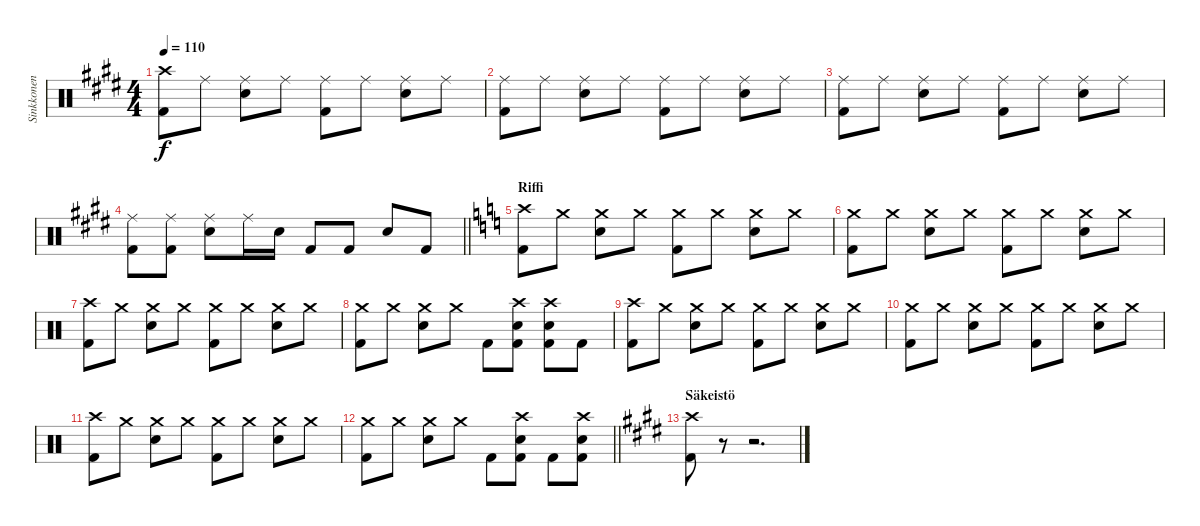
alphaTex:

\track ("Sinkkonen" "Sinkkonen") {instrument percussion}
\staff {score}
\articulation defaults
\ts (4 4)
\tempo 110
\clef neutral
\ks c#minor
("Crash high (hit)" "Kick (hit) 2").8{dy f} "Ride (middle)".8 ("Ride (middle)" "Snare (hit) 2").8 "Ride (middle)".8 ("Ride (middle)" "Kick (hit) 2").8 "Ride (middle)".8 ("Ride (middle)" "Snare (hit) 2").8 "Ride (middle)".8 |
("Ride (middle)" "Kick (hit) 2").8 "Ride (middle)".8 ("Ride (middle)" "Snare (hit) 2").8 "Ride (middle)".8 ("Ride (middle)" "Kick (hit) 2").8 "Ride (middle)".8 ("Ride (middle)" "Snare (hit) 2").8 "Ride (middle)".8 |
("Ride (middle)" "Kick (hit) 2").8 "Ride (middle)".8 ("Ride (middle)" "Snare (hit) 2").8 "Ride (middle)".8 ("Ride (middle)" "Kick (hit) 2").8 "Ride (middle)".8 ("Ride (middle)" "Snare (hit) 2").8 "Ride (middle)".8 |
\barLineRight lightlight
("Ride (middle)" "Kick (hit) 2").8 ("Ride (middle)" "Kick (hit) 2").8 ("Ride (middle)" "Snare (hit) 2").8 "Ride (middle)".16 "Snare (hit) 2".16 "Kick (hit) 2".8 "Kick (hit) 2".8 "Snare (hit) 2".8 "Kick (hit) 2".8 |
\section ("" "Riffi")
\ks c
("Crash high (hit)" "Kick (hit) 2").8 "Crash medium (hit)".8 ("Crash medium (hit)" "Snare (hit) 2").8 "Crash medium (hit)".8 ("Crash medium (hit)" "Kick (hit) 2").8 "Crash medium (hit)".8 ("Crash medium (hit)" "Snare (hit) 2").8 "Crash medium (hit)".8 |
("Crash medium (hit)" "Kick (hit) 2").8 "Crash medium (hit)".8 ("Crash medium (hit)" "Snare (hit) 2").8 "Crash medium (hit)".8 ("Crash medium (hit)" "Kick (hit) 2").8 "Crash medium (hit)".8 ("Crash medium (hit)" "Snare (hit) 2").8 "Crash medium (hit)".8 |
("Crash high (hit)" "Kick (hit) 2").8 "Crash medium (hit)".8 ("Crash medium (hit)" "Snare (hit) 2").8 "Crash medium (hit)".8 ("Crash medium (hit)" "Kick (hit) 2").8 "Crash medium (hit)".8 ("Crash medium (hit)" "Snare (hit) 2").8 "Crash medium (hit)".8 |
("Crash medium (hit)" "Kick (hit) 2").8 "Crash medium (hit)".8 ("Crash medium (hit)" "Snare (hit) 2").8 "Crash medium (hit)".8 "Kick (hit) 2".8 ("Crash high (hit)" "Snare (hit) 2" "Kick (hit) 2").8 ("Crash high (hit)" "Snare (hit) 2" "Kick (hit) 2").8 "Kick (hit) 2".8 |
("Crash high (hit)" "Kick (hit) 2").8 "Crash medium (hit)".8 ("Crash medium (hit)" "Snare (hit) 2").8 "Crash medium (hit)".8 ("Crash medium (hit)" "Kick (hit) 2").8 "Crash medium (hit)".8 ("Crash medium (hit)" "Snare (hit) 2").8 "Crash medium (hit)".8 |
("Crash medium (hit)" "Kick (hit) 2").8 "Crash medium (hit)".8 ("Crash medium (hit)" "Snare (hit) 2").8 "Crash medium (hit)".8 ("Crash medium (hit)" "Kick (hit) 2").8 "Crash medium (hit)".8 ("Crash medium (hit)" "Snare (hit) 2").8 "Crash medium (hit)".8 |
("Crash high (hit)" "Kick (hit) 2").8 "Crash medium (hit)".8 ("Crash medium (hit)" "Snare (hit) 2").8 "Crash medium (hit)".8 ("Crash medium (hit)" "Kick (hit) 2").8 "Crash medium (hit)".8 ("Crash medium (hit)" "Snare (hit) 2").8 "Crash medium (hit)".8 |
\barLineRight lightlight
("Crash medium (hit)" "Kick (hit) 2").8 "Crash medium (hit)".8 ("Crash medium (hit)" "Snare (hit) 2").8 "Crash medium (hit)".8 "Kick (hit) 2".8 ("Crash high (hit)" "Snare (hit) 2" "Kick (hit) 2").8 "Kick (hit) 2".8 ("Crash high (hit)" "Snare (hit) 2" "Kick (hit) 2").8 |
\section ("" "Säkeistö")
\ks c#minor
("Crash high (hit)" "Kick (hit) 2").8 r.8{volume 0} r.2{d}
